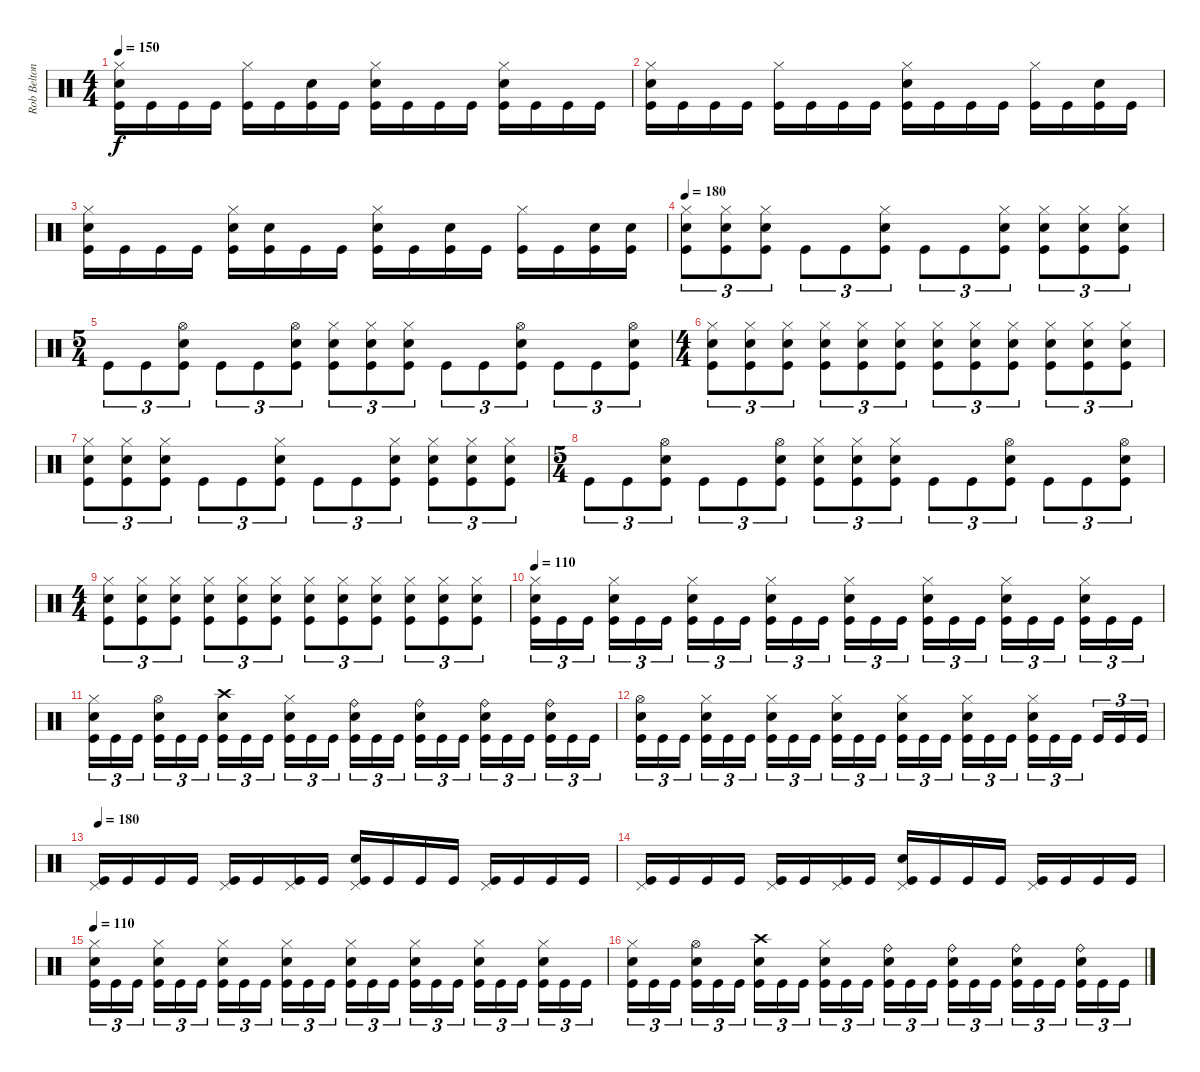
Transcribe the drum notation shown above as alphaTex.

\track ("Rob Belton" "Rob Belton") {instrument percussion}
\staff {score}
\articulation defaults
\ts (4 4)
\tempo 150
\clef neutral
\ks c
("Hi-Hat (closed)" "Snare (hit) 2" "Kick (hit)").16{dy f} "Kick (hit)".16 "Kick (hit)".16 "Kick (hit)".16 ("Hi-Hat (closed)" "Kick (hit)").16 "Kick (hit)".16 ("Snare (hit) 2" "Kick (hit)").16 "Kick (hit)".16 ("Hi-Hat (closed)" "Snare (hit) 2" "Kick (hit)").16 "Kick (hit)".16 "Kick (hit)".16 "Kick (hit)".16 ("Hi-Hat (closed)" "Snare (hit) 2" "Kick (hit)").16 "Kick (hit)".16 "Kick (hit)".16 "Kick (hit)".16 |
("Hi-Hat (closed)" "Snare (hit) 2" "Kick (hit)").16 "Kick (hit)".16 "Kick (hit)".16 "Kick (hit)".16 ("Hi-Hat (closed)" "Kick (hit)").16 "Kick (hit)".16 "Kick (hit)".16 "Kick (hit)".16 ("Hi-Hat (closed)" "Snare (hit) 2" "Kick (hit)").16 "Kick (hit)".16 "Kick (hit)".16 "Kick (hit)".16 ("Hi-Hat (closed)" "Kick (hit)").16 "Kick (hit)".16 ("Snare (hit) 2" "Kick (hit)").16 "Kick (hit)".16 |
("Hi-Hat (closed)" "Snare (hit) 2" "Kick (hit)").16 "Kick (hit)".16 "Kick (hit)".16 "Kick (hit)".16 ("Hi-Hat (closed)" "Snare (hit) 2" "Kick (hit)").16 ("Snare (hit) 2" "Kick (hit)").16 "Kick (hit)".16 "Kick (hit)".16 ("Hi-Hat (closed)" "Snare (hit) 2" "Kick (hit)").16 "Kick (hit)".16 ("Snare (hit) 2" "Kick (hit)").16 "Kick (hit)".16 ("Hi-Hat (closed)" "Kick (hit)").16 "Kick (hit)".16 ("Snare (hit) 2" "Kick (hit)").16 ("Snare (hit) 2" "Kick (hit)").16 |
\tempo 180
("Hi-Hat (closed)" "Snare (hit) 2" "Kick (hit)").8{tu (3 2)} ("Hi-Hat (closed)" "Snare (hit) 2" "Kick (hit)").8{tu (3 2)} ("Hi-Hat (closed)" "Snare (hit) 2" "Kick (hit)").8{tu (3 2)} "Kick (hit)".8{tu (3 2)} "Kick (hit)".8{tu (3 2)} ("Hi-Hat (closed)" "Snare (hit) 2" "Kick (hit)").8{tu (3 2)} "Kick (hit)".8{tu (3 2)} "Kick (hit)".8{tu (3 2)} ("Hi-Hat (closed)" "Snare (hit) 2" "Kick (hit)").8{tu (3 2)} ("Hi-Hat (closed)" "Snare (hit) 2" "Kick (hit)").8{tu (3 2)} ("Hi-Hat (closed)" "Snare (hit) 2" "Kick (hit)").8{tu (3 2)} ("Hi-Hat (closed)" "Snare (hit) 2" "Kick (hit)").8{tu (3 2)} |
\ts (5 4)
"Kick (hit)".8{tu (3 2)} "Kick (hit)".8{tu (3 2)} ("Hi-Hat (open)" "Snare (hit) 2" "Kick (hit)").8{tu (3 2)} "Kick (hit)".8{tu (3 2)} "Kick (hit)".8{tu (3 2)} ("Hi-Hat (open)" "Snare (hit) 2" "Kick (hit)").8{tu (3 2)} ("Hi-Hat (closed)" "Snare (hit) 2" "Kick (hit)").8{tu (3 2)} ("Hi-Hat (closed)" "Snare (hit) 2" "Kick (hit)").8{tu (3 2)} ("Hi-Hat (closed)" "Snare (hit) 2" "Kick (hit)").8{tu (3 2)} "Kick (hit)".8{tu (3 2)} "Kick (hit)".8{tu (3 2)} ("Hi-Hat (open)" "Snare (hit) 2" "Kick (hit)").8{tu (3 2)} "Kick (hit)".8{tu (3 2)} "Kick (hit)".8{tu (3 2)} ("Hi-Hat (open)" "Snare (hit) 2" "Kick (hit)").8{tu (3 2)} |
\ts (4 4)
("Hi-Hat (closed)" "Snare (hit) 2" "Kick (hit)").8{tu (3 2)} ("Hi-Hat (closed)" "Snare (hit) 2" "Kick (hit)").8{tu (3 2)} ("Hi-Hat (closed)" "Snare (hit) 2" "Kick (hit)").8{tu (3 2)} ("Hi-Hat (closed)" "Snare (hit) 2" "Kick (hit)").8{tu (3 2)} ("Hi-Hat (closed)" "Snare (hit) 2" "Kick (hit)").8{tu (3 2)} ("Hi-Hat (closed)" "Snare (hit) 2" "Kick (hit)").8{tu (3 2)} ("Hi-Hat (closed)" "Snare (hit) 2" "Kick (hit)").8{tu (3 2)} ("Hi-Hat (closed)" "Snare (hit) 2" "Kick (hit)").8{tu (3 2)} ("Hi-Hat (closed)" "Snare (hit) 2" "Kick (hit)").8{tu (3 2)} ("Hi-Hat (closed)" "Snare (hit) 2" "Kick (hit)").8{tu (3 2)} ("Hi-Hat (closed)" "Snare (hit) 2" "Kick (hit)").8{tu (3 2)} ("Hi-Hat (closed)" "Snare (hit) 2" "Kick (hit)").8{tu (3 2)} |
("Hi-Hat (closed)" "Snare (hit) 2" "Kick (hit)").8{tu (3 2)} ("Hi-Hat (closed)" "Snare (hit) 2" "Kick (hit)").8{tu (3 2)} ("Hi-Hat (closed)" "Snare (hit) 2" "Kick (hit)").8{tu (3 2)} "Kick (hit)".8{tu (3 2)} "Kick (hit)".8{tu (3 2)} ("Hi-Hat (closed)" "Snare (hit) 2" "Kick (hit)").8{tu (3 2)} "Kick (hit)".8{tu (3 2)} "Kick (hit)".8{tu (3 2)} ("Hi-Hat (closed)" "Snare (hit) 2" "Kick (hit)").8{tu (3 2)} ("Hi-Hat (closed)" "Snare (hit) 2" "Kick (hit)").8{tu (3 2)} ("Hi-Hat (closed)" "Snare (hit) 2" "Kick (hit)").8{tu (3 2)} ("Hi-Hat (closed)" "Snare (hit) 2" "Kick (hit)").8{tu (3 2)} |
\ts (5 4)
"Kick (hit)".8{tu (3 2)} "Kick (hit)".8{tu (3 2)} ("Hi-Hat (open)" "Snare (hit) 2" "Kick (hit)").8{tu (3 2)} "Kick (hit)".8{tu (3 2)} "Kick (hit)".8{tu (3 2)} ("Hi-Hat (open)" "Snare (hit) 2" "Kick (hit)").8{tu (3 2)} ("Hi-Hat (closed)" "Snare (hit) 2" "Kick (hit)").8{tu (3 2)} ("Hi-Hat (closed)" "Snare (hit) 2" "Kick (hit)").8{tu (3 2)} ("Hi-Hat (closed)" "Snare (hit) 2" "Kick (hit)").8{tu (3 2)} "Kick (hit)".8{tu (3 2)} "Kick (hit)".8{tu (3 2)} ("Hi-Hat (open)" "Snare (hit) 2" "Kick (hit)").8{tu (3 2)} "Kick (hit)".8{tu (3 2)} "Kick (hit)".8{tu (3 2)} ("Hi-Hat (open)" "Snare (hit) 2" "Kick (hit)").8{tu (3 2)} |
\ts (4 4)
("Hi-Hat (closed)" "Snare (hit) 2" "Kick (hit)").8{tu (3 2)} ("Hi-Hat (closed)" "Snare (hit) 2" "Kick (hit)").8{tu (3 2)} ("Hi-Hat (closed)" "Snare (hit) 2" "Kick (hit)").8{tu (3 2)} ("Hi-Hat (closed)" "Snare (hit) 2" "Kick (hit)").8{tu (3 2)} ("Hi-Hat (closed)" "Snare (hit) 2" "Kick (hit)").8{tu (3 2)} ("Hi-Hat (closed)" "Snare (hit) 2" "Kick (hit)").8{tu (3 2)} ("Hi-Hat (closed)" "Snare (hit) 2" "Kick (hit)").8{tu (3 2)} ("Hi-Hat (closed)" "Snare (hit) 2" "Kick (hit)").8{tu (3 2)} ("Hi-Hat (closed)" "Snare (hit) 2" "Kick (hit)").8{tu (3 2)} ("Hi-Hat (closed)" "Snare (hit) 2" "Kick (hit)").8{tu (3 2)} ("Hi-Hat (closed)" "Snare (hit) 2" "Kick (hit)").8{tu (3 2)} ("Hi-Hat (closed)" "Snare (hit) 2" "Kick (hit)").8{tu (3 2)} |
\tempo 110
("Hi-Hat (closed)" "Snare (hit) 2" "Kick (hit)").16{tu (3 2)} "Kick (hit)".16{tu (3 2)} "Kick (hit)".16{tu (3 2) beam splitsecondary} ("Hi-Hat (closed)" "Snare (hit) 2" "Kick (hit)").16{tu (3 2)} "Kick (hit)".16{tu (3 2)} "Kick (hit)".16{tu (3 2)} ("Hi-Hat (closed)" "Snare (hit) 2" "Kick (hit)").16{tu (3 2)} "Kick (hit)".16{tu (3 2)} "Kick (hit)".16{tu (3 2) beam splitsecondary} ("Hi-Hat (closed)" "Snare (hit) 2" "Kick (hit)").16{tu (3 2)} "Kick (hit)".16{tu (3 2)} "Kick (hit)".16{tu (3 2)} ("Hi-Hat (closed)" "Snare (hit) 2" "Kick (hit)").16{tu (3 2)} "Kick (hit)".16{tu (3 2)} "Kick (hit)".16{tu (3 2) beam splitsecondary} ("Hi-Hat (closed)" "Snare (hit) 2" "Kick (hit)").16{tu (3 2)} "Kick (hit)".16{tu (3 2)} "Kick (hit)".16{tu (3 2)} ("Hi-Hat (closed)" "Snare (hit) 2" "Kick (hit)").16{tu (3 2)} "Kick (hit)".16{tu (3 2)} "Kick (hit)".16{tu (3 2) beam splitsecondary} ("Hi-Hat (closed)" "Snare (hit) 2" "Kick (hit)").16{tu (3 2)} "Kick (hit)".16{tu (3 2)} "Kick (hit)".16{tu (3 2)} |
("Hi-Hat (closed)" "Snare (hit) 2" "Kick (hit)").16{tu (3 2)} "Kick (hit)".16{tu (3 2)} "Kick (hit)".16{tu (3 2) beam splitsecondary} ("Hi-Hat (open)" "Snare (hit) 2" "Kick (hit)").16{tu (3 2)} "Kick (hit)".16{tu (3 2)} "Kick (hit)".16{tu (3 2)} ("Crash high (hit)" "Snare (hit) 2" "Kick (hit)").16{tu (3 2)} "Kick (hit)".16{tu (3 2)} "Kick (hit)".16{tu (3 2) beam splitsecondary} ("Hi-Hat (closed)" "Snare (hit) 2" "Kick (hit)").16{tu (3 2)} "Kick (hit)".16{tu (3 2)} "Kick (hit)".16{tu (3 2)} ("Ride (bell)" "Snare (hit) 2" "Kick (hit)").16{tu (3 2)} "Kick (hit)".16{tu (3 2)} "Kick (hit)".16{tu (3 2) beam splitsecondary} ("Ride (bell)" "Snare (hit) 2" "Kick (hit)").16{tu (3 2)} "Kick (hit)".16{tu (3 2)} "Kick (hit)".16{tu (3 2)} ("Ride (bell)" "Snare (hit) 2" "Kick (hit)").16{tu (3 2)} "Kick (hit)".16{tu (3 2)} "Kick (hit)".16{tu (3 2) beam splitsecondary} ("Ride (bell)" "Snare (hit) 2" "Kick (hit)").16{tu (3 2)} "Kick (hit)".16{tu (3 2)} "Kick (hit)".16{tu (3 2)} |
("Hi-Hat (open)" "Snare (hit) 2" "Kick (hit)").16{tu (3 2)} "Kick (hit)".16{tu (3 2)} "Kick (hit)".16{tu (3 2) beam splitsecondary} ("Hi-Hat (closed)" "Snare (hit) 2" "Kick (hit)").16{tu (3 2)} "Kick (hit)".16{tu (3 2)} "Kick (hit)".16{tu (3 2)} ("Hi-Hat (closed)" "Snare (hit) 2" "Kick (hit)").16{tu (3 2)} "Kick (hit)".16{tu (3 2)} "Kick (hit)".16{tu (3 2) beam splitsecondary} ("Hi-Hat (closed)" "Snare (hit) 2" "Kick (hit)").16{tu (3 2)} "Kick (hit)".16{tu (3 2)} "Kick (hit)".16{tu (3 2)} ("Hi-Hat (closed)" "Snare (hit) 2" "Kick (hit)").16{tu (3 2)} "Kick (hit)".16{tu (3 2)} "Kick (hit)".16{tu (3 2) beam splitsecondary} ("Hi-Hat (closed)" "Snare (hit) 2" "Kick (hit)").16{tu (3 2)} "Kick (hit)".16{tu (3 2)} "Kick (hit)".16{tu (3 2)} ("Hi-Hat (closed)" "Snare (hit) 2" "Kick (hit)").16{tu (3 2)} "Kick (hit)".16{tu (3 2)} "Kick (hit)".16{tu (3 2) beam splitsecondary} "Kick (hit)".16{tu (3 2)} "Kick (hit)".16{tu (3 2)} "Kick (hit)".16{tu (3 2)} |
\tempo 180
("Pedal Hi-Hat (hit)" "Kick (hit)").16 "Kick (hit)".16 "Kick (hit)".16 "Kick (hit)".16 ("Pedal Hi-Hat (hit)" "Kick (hit)").16 "Kick (hit)".16 ("Pedal Hi-Hat (hit)" "Kick (hit)").16 "Kick (hit)".16 ("Pedal Hi-Hat (hit)" "Snare (hit) 2" "Kick (hit)").16 "Kick (hit)".16 "Kick (hit)".16 "Kick (hit)".16 ("Pedal Hi-Hat (hit)" "Kick (hit)").16 "Kick (hit)".16 "Kick (hit)".16 "Kick (hit)".16 |
("Pedal Hi-Hat (hit)" "Kick (hit)").16 "Kick (hit)".16 "Kick (hit)".16 "Kick (hit)".16 ("Pedal Hi-Hat (hit)" "Kick (hit)").16 "Kick (hit)".16 ("Pedal Hi-Hat (hit)" "Kick (hit)").16 "Kick (hit)".16 ("Pedal Hi-Hat (hit)" "Snare (hit) 2" "Kick (hit)").16 "Kick (hit)".16 "Kick (hit)".16 "Kick (hit)".16 ("Pedal Hi-Hat (hit)" "Kick (hit)").16 "Kick (hit)".16 "Kick (hit)".16 "Kick (hit)".16 |
\tempo 110
("Hi-Hat (closed)" "Snare (hit) 2" "Kick (hit)").16{tu (3 2)} "Kick (hit)".16{tu (3 2)} "Kick (hit)".16{tu (3 2) beam splitsecondary} ("Hi-Hat (closed)" "Snare (hit) 2" "Kick (hit)").16{tu (3 2)} "Kick (hit)".16{tu (3 2)} "Kick (hit)".16{tu (3 2)} ("Hi-Hat (closed)" "Snare (hit) 2" "Kick (hit)").16{tu (3 2)} "Kick (hit)".16{tu (3 2)} "Kick (hit)".16{tu (3 2) beam splitsecondary} ("Hi-Hat (closed)" "Snare (hit) 2" "Kick (hit)").16{tu (3 2)} "Kick (hit)".16{tu (3 2)} "Kick (hit)".16{tu (3 2)} ("Hi-Hat (closed)" "Snare (hit) 2" "Kick (hit)").16{tu (3 2)} "Kick (hit)".16{tu (3 2)} "Kick (hit)".16{tu (3 2) beam splitsecondary} ("Hi-Hat (closed)" "Snare (hit) 2" "Kick (hit)").16{tu (3 2)} "Kick (hit)".16{tu (3 2)} "Kick (hit)".16{tu (3 2)} ("Hi-Hat (closed)" "Snare (hit) 2" "Kick (hit)").16{tu (3 2)} "Kick (hit)".16{tu (3 2)} "Kick (hit)".16{tu (3 2) beam splitsecondary} ("Hi-Hat (closed)" "Snare (hit) 2" "Kick (hit)").16{tu (3 2)} "Kick (hit)".16{tu (3 2)} "Kick (hit)".16{tu (3 2)} |
("Hi-Hat (closed)" "Snare (hit) 2" "Kick (hit)").16{tu (3 2)} "Kick (hit)".16{tu (3 2)} "Kick (hit)".16{tu (3 2) beam splitsecondary} ("Hi-Hat (open)" "Snare (hit) 2" "Kick (hit)").16{tu (3 2)} "Kick (hit)".16{tu (3 2)} "Kick (hit)".16{tu (3 2)} ("Crash high (hit)" "Snare (hit) 2" "Kick (hit)").16{tu (3 2)} "Kick (hit)".16{tu (3 2)} "Kick (hit)".16{tu (3 2) beam splitsecondary} ("Hi-Hat (closed)" "Snare (hit) 2" "Kick (hit)").16{tu (3 2)} "Kick (hit)".16{tu (3 2)} "Kick (hit)".16{tu (3 2)} ("Ride (bell)" "Snare (hit) 2" "Kick (hit)").16{tu (3 2)} "Kick (hit)".16{tu (3 2)} "Kick (hit)".16{tu (3 2) beam splitsecondary} ("Ride (bell)" "Snare (hit) 2" "Kick (hit)").16{tu (3 2)} "Kick (hit)".16{tu (3 2)} "Kick (hit)".16{tu (3 2)} ("Ride (bell)" "Snare (hit) 2" "Kick (hit)").16{tu (3 2)} "Kick (hit)".16{tu (3 2)} "Kick (hit)".16{tu (3 2) beam splitsecondary} ("Ride (bell)" "Snare (hit) 2" "Kick (hit)").16{tu (3 2)} "Kick (hit)".16{tu (3 2)} "Kick (hit)".16{tu (3 2)}
